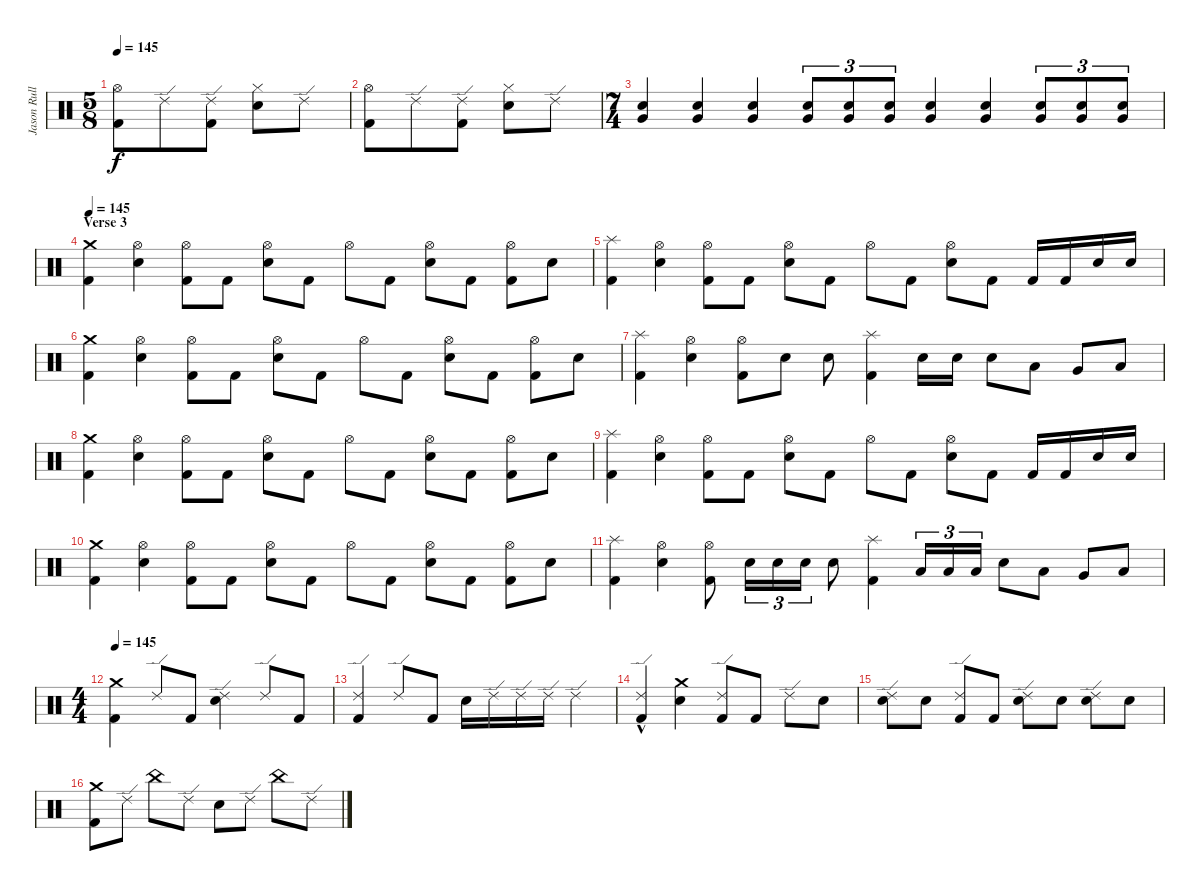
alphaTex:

\track ("Jason Rullo" "Jason Rull") {instrument percussion}
\staff {score}
\articulation defaults
\ts (5 8)
\tempo 145
\clef neutral
\ks c
("Hi-Hat (open)" "Kick (hit) 2").8{dy f} "Ride (edge) 2".8 ("Ride (edge) 2" "Kick (hit) 2").8 ("Hi-Hat (closed)" "Electric Snare (hit)").8 "Ride (edge) 2".8 |
("Hi-Hat (open)" "Kick (hit) 2").8 "Ride (edge) 2".8 ("Ride (edge) 2" "Kick (hit) 2").8 ("Hi-Hat (closed)" "Electric Snare (hit)").8 "Ride (edge) 2".8 |
\ts (7 4)
("Very Low Tom (hit)" "Electric Snare (hit)").4 ("Very Low Tom (hit)" "Electric Snare (hit)").4 ("Very Low Tom (hit)" "Electric Snare (hit)").4 ("Very Low Tom (hit)" "Electric Snare (hit)").8{tu (3 2)} ("Very Low Tom (hit)" "Electric Snare (hit)").8{tu (3 2)} ("Very Low Tom (hit)" "Electric Snare (hit)").8{tu (3 2)} ("Very Low Tom (hit)" "Electric Snare (hit)").4 ("Very Low Tom (hit)" "Electric Snare (hit)").4 ("Very Low Tom (hit)" "Electric Snare (hit)").8{tu (3 2)} ("Very Low Tom (hit)" "Electric Snare (hit)").8{tu (3 2)} ("Very Low Tom (hit)" "Electric Snare (hit)").8{tu (3 2)} |
\section ("" "Verse 3")
\tempo 145
("Crash medium (hit)" "Kick (hit) 2").4 ("Hi-Hat (open)" "Electric Snare (hit)").4 ("Hi-Hat (open)" "Kick (hit) 2").8 "Kick (hit) 2".8 ("Hi-Hat (open)" "Electric Snare (hit)").8 "Kick (hit) 2".8 "Hi-Hat (open)".8 "Kick (hit) 2".8 ("Hi-Hat (open)" "Electric Snare (hit)").8 "Kick (hit) 2".8 ("Hi-Hat (open)" "Kick (hit) 2").8 "Electric Snare (hit)".8 |
("Splash (hit)" "Kick (hit) 2").4 ("Hi-Hat (open)" "Electric Snare (hit)").4 ("Hi-Hat (open)" "Kick (hit) 2").8 "Kick (hit) 2".8 ("Hi-Hat (open)" "Electric Snare (hit)").8 "Kick (hit) 2".8 "Hi-Hat (open)".8 "Kick (hit) 2".8 ("Hi-Hat (open)" "Electric Snare (hit)").8 "Kick (hit) 2".8 "Kick (hit) 2".16 "Kick (hit) 2".16 "Electric Snare (hit)".16 "Electric Snare (hit)".16 |
("Crash medium (hit)" "Kick (hit) 2").4 ("Hi-Hat (open)" "Electric Snare (hit)").4 ("Hi-Hat (open)" "Kick (hit) 2").8 "Kick (hit) 2".8 ("Hi-Hat (open)" "Electric Snare (hit)").8 "Kick (hit) 2".8 "Hi-Hat (open)".8 "Kick (hit) 2".8 ("Hi-Hat (open)" "Electric Snare (hit)").8 "Kick (hit) 2".8 ("Hi-Hat (open)" "Kick (hit) 2").8 "Electric Snare (hit)".8 |
("Splash (hit)" "Kick (hit) 2").4 ("Hi-Hat (open)" "Electric Snare (hit)").4 ("Hi-Hat (open)" "Kick (hit) 2").8 "Electric Snare (hit)".8 "Electric Snare (hit)".8 ("Splash (hit)" "Kick (hit) 2").4 "Electric Snare (hit)".16 "Electric Snare (hit)".16 "Electric Snare (hit)".8 "Low Tom (hit)".8 "Very Low Tom (hit)".8 "Low Floor Tom (hit)".8 |
("Crash medium (hit)" "Kick (hit) 2").4 ("Hi-Hat (open)" "Electric Snare (hit)").4 ("Hi-Hat (open)" "Kick (hit) 2").8 "Kick (hit) 2".8 ("Hi-Hat (open)" "Electric Snare (hit)").8 "Kick (hit) 2".8 "Hi-Hat (open)".8 "Kick (hit) 2".8 ("Hi-Hat (open)" "Electric Snare (hit)").8 "Kick (hit) 2".8 ("Hi-Hat (open)" "Kick (hit) 2").8 "Electric Snare (hit)".8 |
("Splash (hit)" "Kick (hit) 2").4 ("Hi-Hat (open)" "Electric Snare (hit)").4 ("Hi-Hat (open)" "Kick (hit) 2").8 "Kick (hit) 2".8 ("Hi-Hat (open)" "Electric Snare (hit)").8 "Kick (hit) 2".8 "Hi-Hat (open)".8 "Kick (hit) 2".8 ("Hi-Hat (open)" "Electric Snare (hit)").8 "Kick (hit) 2".8 "Kick (hit) 2".16 "Kick (hit) 2".16 "Electric Snare (hit)".16 "Electric Snare (hit)".16 |
("Crash medium (hit)" "Kick (hit) 2").4 ("Hi-Hat (open)" "Electric Snare (hit)").4 ("Hi-Hat (open)" "Kick (hit) 2").8 "Kick (hit) 2".8 ("Hi-Hat (open)" "Electric Snare (hit)").8 "Kick (hit) 2".8 "Hi-Hat (open)".8 "Kick (hit) 2".8 ("Hi-Hat (open)" "Electric Snare (hit)").8 "Kick (hit) 2".8 ("Hi-Hat (open)" "Kick (hit) 2").8 "Electric Snare (hit)".8 |
("Splash (hit)" "Kick (hit) 2").4 ("Hi-Hat (open)" "Electric Snare (hit)").4 ("Hi-Hat (open)" "Kick (hit) 2").8 "Electric Snare (hit)".16{tu (3 2)} "Electric Snare (hit)".16{tu (3 2)} "Electric Snare (hit)".16{tu (3 2)} "Electric Snare (hit)".8 ("Splash (hit)" "Kick (hit) 2").4 "Low Tom (hit)".16{tu (3 2)} "Low Tom (hit)".16{tu (3 2)} "Low Tom (hit)".16{tu (3 2)} "Electric Snare (hit)".8 "Low Tom (hit)".8 "Very Low Tom (hit)".8 "Low Floor Tom (hit)".8 |
\ts (4 4)
\tempo 145
("Crash medium (hit)" "Kick (hit) 2").4 "Ride (edge) 2".8 "Kick (hit) 2".8 ("Electric Snare (hit)" "Ride (edge) 2").4 "Ride (edge) 2".8 "Kick (hit) 2".8 |
("Ride (edge) 2" "Kick (hit) 2").4 "Ride (edge) 2".8 "Kick (hit) 2".8 "Electric Snare (hit)".16 "Ride (edge) 2".16 "Ride (edge) 2".16 "Ride (edge) 2".16 "Ride (edge) 2".4 |
("Ride (edge) 2"{hac} "Kick (hit) 2").4 ("Crash medium (hit)" "Electric Snare (hit)").4 ("Ride (edge) 2" "Kick (hit) 2").8 "Kick (hit) 2".8 "Ride (edge) 2".8 "Electric Snare (hit)".8 |
("Ride (edge) 2" "Electric Snare (hit)").8 "Electric Snare (hit)".8 ("Ride (edge) 2" "Kick (hit) 2").8 "Kick (hit) 2".8 ("Ride (edge) 2" "Electric Snare (hit)").8 "Electric Snare (hit)".8 ("Ride (edge) 2" "Electric Snare (hit)").8 "Electric Snare (hit)".8 |
("Crash medium (hit)" "Kick (hit) 2").8 "Ride (edge) 2".8 "China (hit)".8 "Ride (edge) 2".8 "Electric Snare (hit)".8 "Ride (edge) 2".8 "China (hit)".8 "Ride (edge) 2".8
